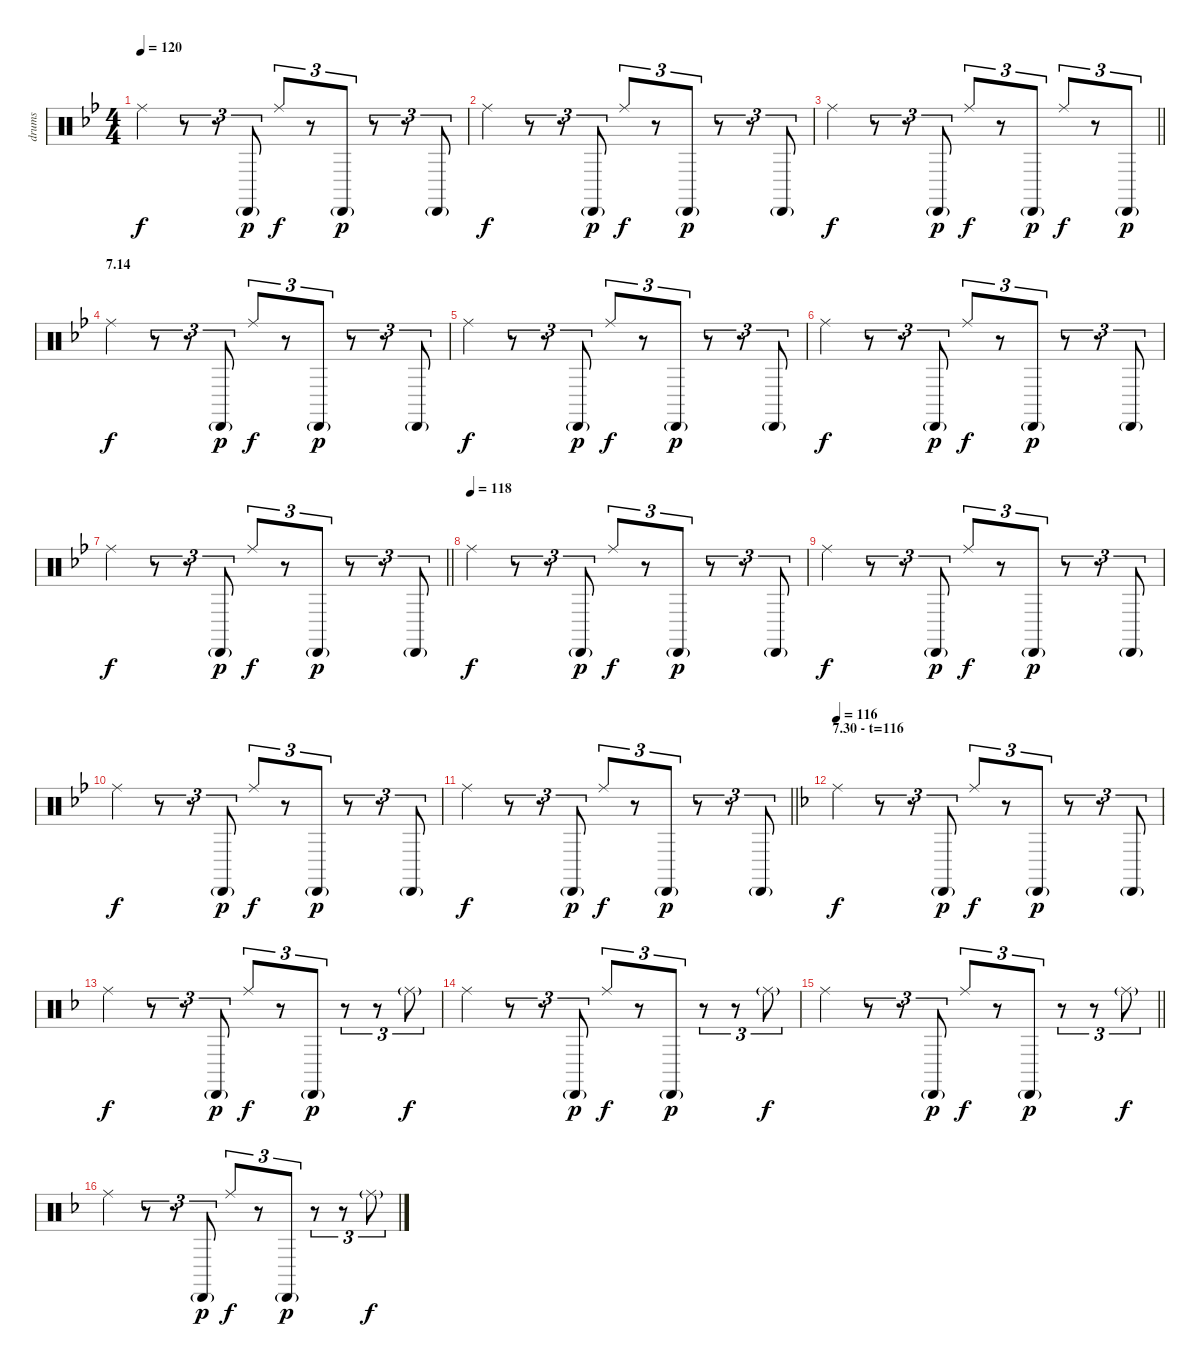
\track ("drums" "drums") {instrument percussion}
\staff {score}
\articulation defaults
\ts (4 4)
\tempo 120
\clef neutral
\ks bb "Ride (middle)".4{dy f}
r.8{tu (3 2)} r.8{tu (3 2)} "Cabasa (hit)"{g}.8{tu (3 2) dy p} "Ride (middle)".8{tu (3 2) dy f} r.8{tu (3 2)} "Cabasa (hit)"{g}.8{tu (3 2) dy p} r.8{tu (3 2)} r.8{tu (3 2)} "Cabasa (hit)"{g}.8{tu (3 2)} |
"Ride (middle)".4{dy f} r.8{tu (3 2)} r.8{tu (3 2)} "Cabasa (hit)"{g}.8{tu (3 2) dy p} "Ride (middle)".8{tu (3 2) dy f} r.8{tu (3 2)} "Cabasa (hit)"{g}.8{tu (3 2) dy p} r.8{tu (3 2)} r.8{tu (3 2)} "Cabasa (hit)"{g}.8{tu (3 2)} |
\barLineRight lightlight "Ride (middle)".4{dy f}
r.8{tu (3 2)} r.8{tu (3 2)} "Cabasa (hit)"{g}.8{tu (3 2) dy p} "Ride (middle)".8{tu (3 2) dy f} r.8{tu (3 2)} "Cabasa (hit)"{g}.8{tu (3 2) dy p} "Ride (middle)".8{tu (3 2) dy f} r.8{tu (3 2)} "Cabasa (hit)"{g}.8{tu (3 2) dy p} |
\section ("" "7.14")
"Ride (middle)".4{dy f} r.8{tu (3 2)} r.8{tu (3 2)} "Cabasa (hit)"{g}.8{tu (3 2) dy p} "Ride (middle)".8{tu (3 2) dy f} r.8{tu (3 2)} "Cabasa (hit)"{g}.8{tu (3 2) dy p} r.8{tu (3 2)} r.8{tu (3 2)} "Cabasa (hit)"{g}.8{tu (3 2)} |
"Ride (middle)".4{dy f} r.8{tu (3 2)} r.8{tu (3 2)} "Cabasa (hit)"{g}.8{tu (3 2) dy p} "Ride (middle)".8{tu (3 2) dy f} r.8{tu (3 2)} "Cabasa (hit)"{g}.8{tu (3 2) dy p} r.8{tu (3 2)} r.8{tu (3 2)} "Cabasa (hit)"{g}.8{tu (3 2)} |
"Ride (middle)".4{dy f} r.8{tu (3 2)} r.8{tu (3 2)} "Cabasa (hit)"{g}.8{tu (3 2) dy p} "Ride (middle)".8{tu (3 2) dy f} r.8{tu (3 2)} "Cabasa (hit)"{g}.8{tu (3 2) dy p} r.8{tu (3 2)} r.8{tu (3 2)} "Cabasa (hit)"{g}.8{tu (3 2)} |
\barLineRight lightlight "Ride (middle)".4{dy f}
r.8{tu (3 2)} r.8{tu (3 2)} "Cabasa (hit)"{g}.8{tu (3 2) dy p} "Ride (middle)".8{tu (3 2) dy f} r.8{tu (3 2)} "Cabasa (hit)"{g}.8{tu (3 2) dy p} r.8{tu (3 2)} r.8{tu (3 2)} "Cabasa (hit)"{g}.8{tu (3 2)} |
\tempo (118)
"Ride (middle)".4{dy f} r.8{tu (3 2)} r.8{tu (3 2)} "Cabasa (hit)"{g}.8{tu (3 2) dy p} "Ride (middle)".8{tu (3 2) dy f} r.8{tu (3 2)} "Cabasa (hit)"{g}.8{tu (3 2) dy p} r.8{tu (3 2)} r.8{tu (3 2)} "Cabasa (hit)"{g}.8{tu (3 2)} |
"Ride (middle)".4{dy f} r.8{tu (3 2)} r.8{tu (3 2)} "Cabasa (hit)"{g}.8{tu (3 2) dy p} "Ride (middle)".8{tu (3 2) dy f} r.8{tu (3 2)} "Cabasa (hit)"{g}.8{tu (3 2) dy p} r.8{tu (3 2)} r.8{tu (3 2)} "Cabasa (hit)"{g}.8{tu (3 2)} |
"Ride (middle)".4{dy f} r.8{tu (3 2)} r.8{tu (3 2)} "Cabasa (hit)"{g}.8{tu (3 2) dy p} "Ride (middle)".8{tu (3 2) dy f} r.8{tu (3 2)} "Cabasa (hit)"{g}.8{tu (3 2) dy p} r.8{tu (3 2)} r.8{tu (3 2)} "Cabasa (hit)"{g}.8{tu (3 2)} |
\barLineRight lightlight "Ride (middle)".4{dy f}
r.8{tu (3 2)} r.8{tu (3 2)} "Cabasa (hit)"{g}.8{tu (3 2) dy p} "Ride (middle)".8{tu (3 2) dy f} r.8{tu (3 2)} "Cabasa (hit)"{g}.8{tu (3 2) dy p} r.8{tu (3 2)} r.8{tu (3 2)} "Cabasa (hit)"{g}.8{tu (3 2)} |
\section ("" "7.30 - t=116")
\tempo 116
\ks f "Ride (middle)".4{dy f}
r.8{tu (3 2)} r.8{tu (3 2)} "Cabasa (hit)"{g}.8{tu (3 2) dy p} "Ride (middle)".8{tu (3 2) dy f} r.8{tu (3 2)} "Cabasa (hit)"{g}.8{tu (3 2) dy p} r.8{tu (3 2)} r.8{tu (3 2)} "Cabasa (hit)"{g}.8{tu (3 2)} |
"Ride (middle)".4{dy f} r.8{tu (3 2)} r.8{tu (3 2)} "Cabasa (hit)"{g}.8{tu (3 2) dy p} "Ride (middle)".8{tu (3 2) dy f} r.8{tu (3 2)} "Cabasa (hit)"{g}.8{tu (3 2) dy p} r.8{tu (3 2)} r.8{tu (3 2)} "Ride (middle)"{g}.8{tu (3 2) dy f} |
"Ride (middle)".4 r.8{tu (3 2)} r.8{tu (3 2)} "Cabasa (hit)"{g}.8{tu (3 2) dy p} "Ride (middle)".8{tu (3 2) dy f} r.8{tu (3 2)} "Cabasa (hit)"{g}.8{tu (3 2) dy p} r.8{tu (3 2)} r.8{tu (3 2)} "Ride (middle)"{g}.8{tu (3 2) dy f} |
\barLineRight lightlight "Ride (middle)".4
r.8{tu (3 2)} r.8{tu (3 2)} "Cabasa (hit)"{g}.8{tu (3 2) dy p} "Ride (middle)".8{tu (3 2) dy f} r.8{tu (3 2)} "Cabasa (hit)"{g}.8{tu (3 2) dy p} r.8{tu (3 2)} r.8{tu (3 2)} "Ride (middle)"{g}.8{tu (3 2) dy f} |
"Ride (middle)".4 r.8{tu (3 2)} r.8{tu (3 2)} "Cabasa (hit)"{g}.8{tu (3 2) dy p} "Ride (middle)".8{tu (3 2) dy f} r.8{tu (3 2)} "Cabasa (hit)"{g}.8{tu (3 2) dy p} r.8{tu (3 2)} r.8{tu (3 2)} "Ride (middle)"{g}.8{tu (3 2) dy f}
